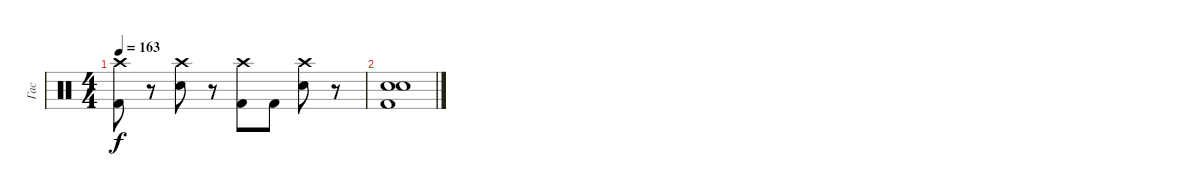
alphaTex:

\track ("Гас" "Гас") {instrument percussion}
\staff {score}
\articulation defaults
\ts (4 4)
\tempo 163
\clef neutral
\ks c
("Crash high (hit)" "Kick (hit) 2").8{dy f} r.8 ("Crash high (hit)" "Electric Snare (hit)").8 r.8 ("Crash high (hit)" "Kick (hit) 2").8 "Kick (hit) 2".8 ("Crash high (hit)" "Electric Snare (hit)").8 r.8 |
("Electric Snare (hit)" "Snare (hit) 2" "Kick (hit) 2").1
